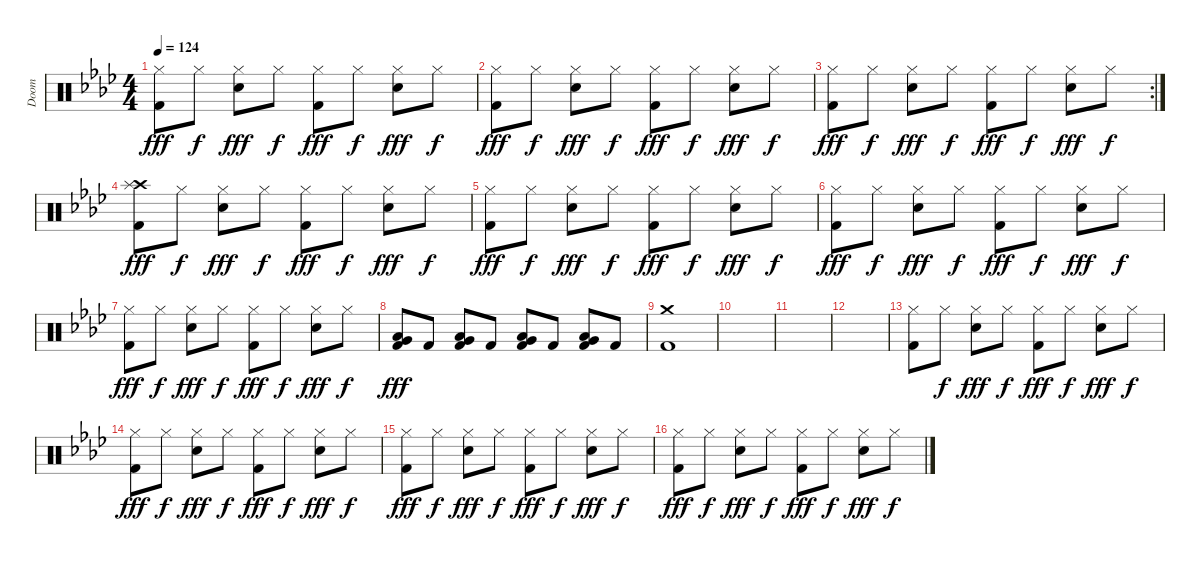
\track ("Doom" "Doom") {instrument percussion}
\staff {score}
\articulation defaults
\ts (4 4)
\tempo 124
\clef neutral
\ks ab
("Hi-Hat (closed)" "Kick (hit) 2").8{dy fff} "Hi-Hat (closed)".8{dy f} ("Hi-Hat (closed)" "Snare (hit) 2").8{dy fff} "Hi-Hat (closed)".8{dy f} ("Hi-Hat (closed)" "Kick (hit) 2").8{dy fff} "Hi-Hat (closed)".8{dy f} ("Hi-Hat (closed)" "Snare (hit) 2").8{dy fff} "Hi-Hat (closed)".8{dy f} |
("Hi-Hat (closed)" "Kick (hit) 2").8{dy fff} "Hi-Hat (closed)".8{dy f} ("Hi-Hat (closed)" "Snare (hit) 2").8{dy fff} "Hi-Hat (closed)".8{dy f} ("Hi-Hat (closed)" "Kick (hit) 2").8{dy fff} "Hi-Hat (closed)".8{dy f} ("Hi-Hat (closed)" "Snare (hit) 2").8{dy fff} "Hi-Hat (closed)".8{dy f} |
\rc 2
("Hi-Hat (closed)" "Kick (hit) 2").8{dy fff} "Hi-Hat (closed)".8{dy f} ("Hi-Hat (closed)" "Snare (hit) 2").8{dy fff} "Hi-Hat (closed)".8{dy f} ("Hi-Hat (closed)" "Kick (hit) 2").8{dy fff} "Hi-Hat (closed)".8{dy f} ("Hi-Hat (closed)" "Snare (hit) 2").8{dy fff} "Hi-Hat (closed)".8{dy f} |
("Crash high (hit)" "Splash (hit)" "Kick (hit) 2").8{dy fff} "Hi-Hat (closed)".8{dy f} ("Hi-Hat (closed)" "Snare (hit) 2").8{dy fff} "Hi-Hat (closed)".8{dy f} ("Hi-Hat (closed)" "Kick (hit) 2").8{dy fff} "Hi-Hat (closed)".8{dy f} ("Hi-Hat (closed)" "Snare (hit) 2").8{dy fff} "Hi-Hat (closed)".8{dy f} |
("Hi-Hat (closed)" "Kick (hit) 2").8{dy fff} "Hi-Hat (closed)".8{dy f} ("Hi-Hat (closed)" "Snare (hit) 2").8{dy fff} "Hi-Hat (closed)".8{dy f} ("Hi-Hat (closed)" "Kick (hit) 2").8{dy fff} "Hi-Hat (closed)".8{dy f} ("Hi-Hat (closed)" "Snare (hit) 2").8{dy fff} "Hi-Hat (closed)".8{dy f} |
("Hi-Hat (closed)" "Kick (hit) 2").8{dy fff} "Hi-Hat (closed)".8{dy f} ("Hi-Hat (closed)" "Snare (hit) 2").8{dy fff} "Hi-Hat (closed)".8{dy f} ("Hi-Hat (closed)" "Kick (hit) 2").8{dy fff} "Hi-Hat (closed)".8{dy f} ("Hi-Hat (closed)" "Snare (hit) 2").8{dy fff} "Hi-Hat (closed)".8{dy f} |
("Hi-Hat (closed)" "Kick (hit) 2").8{dy fff} "Hi-Hat (closed)".8{dy f} ("Hi-Hat (closed)" "Snare (hit) 2").8{dy fff} "Hi-Hat (closed)".8{dy f} ("Hi-Hat (closed)" "Kick (hit) 2").8{dy fff} "Hi-Hat (closed)".8{dy f} ("Hi-Hat (closed)" "Snare (hit) 2").8{dy fff} "Hi-Hat (closed)".8{dy f} |
("Very Low Tom (hit)" "Low Floor Tom (hit)" "Kick (hit) 2").8{dy fff} "Kick (hit) 2".8 ("Very Low Tom (hit)" "Low Floor Tom (hit)" "Kick (hit) 2").8 "Kick (hit) 2".8 ("Very Low Tom (hit)" "Low Floor Tom (hit)" "Kick (hit) 2").8 "Kick (hit) 2".8 ("Very Low Tom (hit)" "Low Floor Tom (hit)" "Kick (hit) 2").8 "Kick (hit) 2".8 |
("Crash medium (hit)" "Kick (hit) 2").1 |
|
|
|
("Hi-Hat (closed)" "Kick (hit) 2").8 "Hi-Hat (closed)".8{dy f} ("Hi-Hat (closed)" "Snare (hit) 2").8{dy fff} "Hi-Hat (closed)".8{dy f} ("Hi-Hat (closed)" "Kick (hit) 2").8{dy fff} "Hi-Hat (closed)".8{dy f} ("Hi-Hat (closed)" "Snare (hit) 2").8{dy fff} "Hi-Hat (closed)".8{dy f} |
("Hi-Hat (closed)" "Kick (hit) 2").8{dy fff} "Hi-Hat (closed)".8{dy f} ("Hi-Hat (closed)" "Snare (hit) 2").8{dy fff} "Hi-Hat (closed)".8{dy f} ("Hi-Hat (closed)" "Kick (hit) 2").8{dy fff} "Hi-Hat (closed)".8{dy f} ("Hi-Hat (closed)" "Snare (hit) 2").8{dy fff} "Hi-Hat (closed)".8{dy f} |
("Hi-Hat (closed)" "Kick (hit) 2").8{dy fff} "Hi-Hat (closed)".8{dy f} ("Hi-Hat (closed)" "Snare (hit) 2").8{dy fff} "Hi-Hat (closed)".8{dy f} ("Hi-Hat (closed)" "Kick (hit) 2").8{dy fff} "Hi-Hat (closed)".8{dy f} ("Hi-Hat (closed)" "Snare (hit) 2").8{dy fff} "Hi-Hat (closed)".8{dy f} |
("Hi-Hat (closed)" "Kick (hit) 2").8{dy fff} "Hi-Hat (closed)".8{dy f} ("Hi-Hat (closed)" "Snare (hit) 2").8{dy fff} "Hi-Hat (closed)".8{dy f} ("Hi-Hat (closed)" "Kick (hit) 2").8{dy fff} "Hi-Hat (closed)".8{dy f} ("Hi-Hat (closed)" "Snare (hit) 2").8{dy fff} "Hi-Hat (closed)".8{dy f}
